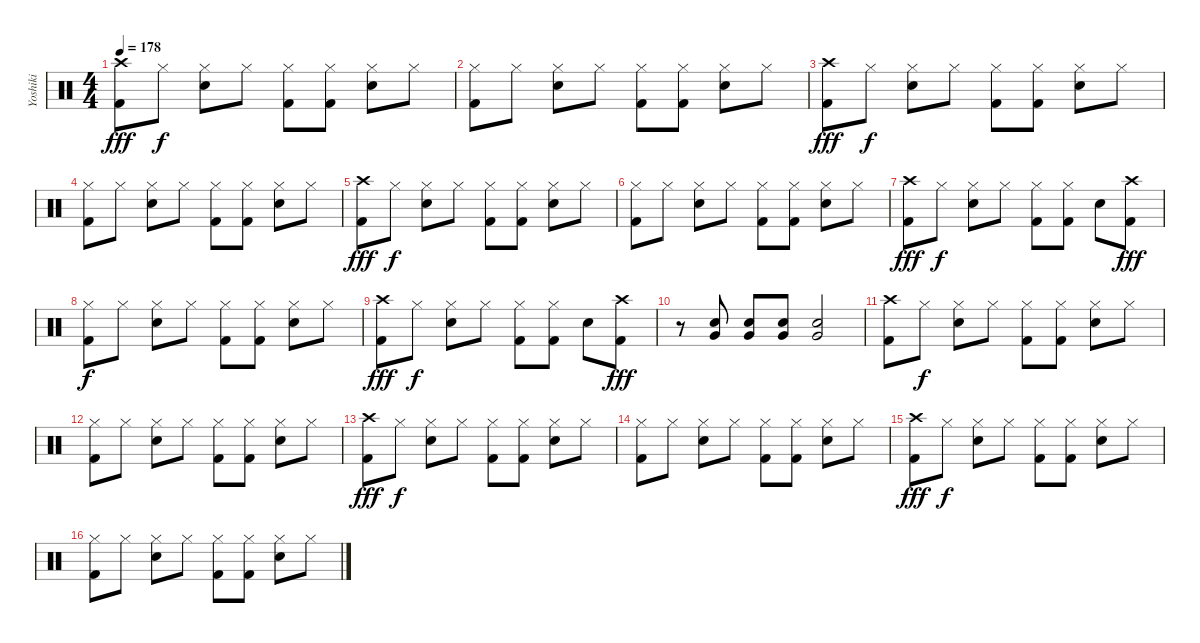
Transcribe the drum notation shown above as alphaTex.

\track ("Yoshiki" "Yoshiki") {instrument percussion}
\staff {score}
\articulation defaults
\ts (4 4)
\tempo 178
\clef neutral
\ks c
("Crash high (hit)" "Kick (hit) 2").8{dy fff} "Hi-Hat (closed)".8{dy f} ("Hi-Hat (closed)" "Snare (hit) 2").8 "Hi-Hat (closed)".8 ("Hi-Hat (closed)" "Kick (hit) 2").8 ("Hi-Hat (closed)" "Kick (hit) 2").8 ("Hi-Hat (closed)" "Snare (hit) 2").8 "Hi-Hat (closed)".8 |
("Hi-Hat (closed)" "Kick (hit) 2").8 "Hi-Hat (closed)".8 ("Hi-Hat (closed)" "Snare (hit) 2").8 "Hi-Hat (closed)".8 ("Hi-Hat (closed)" "Kick (hit) 2").8 ("Hi-Hat (closed)" "Kick (hit) 2").8 ("Hi-Hat (closed)" "Snare (hit) 2").8 "Hi-Hat (closed)".8 |
("Crash high (hit)" "Kick (hit) 2").8{dy fff} "Hi-Hat (closed)".8{dy f} ("Hi-Hat (closed)" "Snare (hit) 2").8 "Hi-Hat (closed)".8 ("Hi-Hat (closed)" "Kick (hit) 2").8 ("Hi-Hat (closed)" "Kick (hit) 2").8 ("Hi-Hat (closed)" "Snare (hit) 2").8 "Hi-Hat (closed)".8 |
("Hi-Hat (closed)" "Kick (hit) 2").8 "Hi-Hat (closed)".8 ("Hi-Hat (closed)" "Snare (hit) 2").8 "Hi-Hat (closed)".8 ("Hi-Hat (closed)" "Kick (hit) 2").8 ("Hi-Hat (closed)" "Kick (hit) 2").8 ("Hi-Hat (closed)" "Snare (hit) 2").8 "Hi-Hat (closed)".8 |
("Crash high (hit)" "Kick (hit) 2").8{dy fff} "Hi-Hat (closed)".8{dy f} ("Hi-Hat (closed)" "Snare (hit) 2").8 "Hi-Hat (closed)".8 ("Hi-Hat (closed)" "Kick (hit) 2").8 ("Hi-Hat (closed)" "Kick (hit) 2").8 ("Hi-Hat (closed)" "Snare (hit) 2").8 "Hi-Hat (closed)".8 |
("Hi-Hat (closed)" "Kick (hit) 2").8 "Hi-Hat (closed)".8 ("Hi-Hat (closed)" "Snare (hit) 2").8 "Hi-Hat (closed)".8 ("Hi-Hat (closed)" "Kick (hit) 2").8 ("Hi-Hat (closed)" "Kick (hit) 2").8 ("Hi-Hat (closed)" "Snare (hit) 2").8 "Hi-Hat (closed)".8 |
("Crash high (hit)" "Kick (hit) 2").8{dy fff} "Hi-Hat (closed)".8{dy f} ("Hi-Hat (closed)" "Snare (hit) 2").8 "Hi-Hat (closed)".8 ("Hi-Hat (closed)" "Kick (hit) 2").8 ("Hi-Hat (closed)" "Kick (hit) 2").8 "Snare (hit) 2".8 ("Crash high (hit)" "Kick (hit) 2").8{dy fff} |
("Hi-Hat (closed)" "Kick (hit) 2").8{dy f} "Hi-Hat (closed)".8 ("Hi-Hat (closed)" "Snare (hit) 2").8 "Hi-Hat (closed)".8 ("Hi-Hat (closed)" "Kick (hit) 2").8 ("Hi-Hat (closed)" "Kick (hit) 2").8 ("Hi-Hat (closed)" "Snare (hit) 2").8 "Hi-Hat (closed)".8 |
("Crash high (hit)" "Kick (hit) 2").8{dy fff} "Hi-Hat (closed)".8{dy f} ("Hi-Hat (closed)" "Snare (hit) 2").8 "Hi-Hat (closed)".8 ("Hi-Hat (closed)" "Kick (hit) 2").8 ("Hi-Hat (closed)" "Kick (hit) 2").8 "Snare (hit) 2".8 ("Crash high (hit)" "Kick (hit) 2").8{dy fff} |
r.8 ("Snare (hit) 2" "Very Low Tom (hit)").8 ("Snare (hit) 2" "Very Low Tom (hit)").8 ("Snare (hit) 2" "Very Low Tom (hit)").8 ("Snare (hit) 2" "Very Low Tom (hit)").2 |
("Crash high (hit)" "Kick (hit) 2").8 "Hi-Hat (closed)".8{dy f} ("Hi-Hat (closed)" "Snare (hit) 2").8 "Hi-Hat (closed)".8 ("Hi-Hat (closed)" "Kick (hit) 2").8 ("Hi-Hat (closed)" "Kick (hit) 2").8 ("Hi-Hat (closed)" "Snare (hit) 2").8 "Hi-Hat (closed)".8 |
("Hi-Hat (closed)" "Kick (hit) 2").8 "Hi-Hat (closed)".8 ("Hi-Hat (closed)" "Snare (hit) 2").8 "Hi-Hat (closed)".8 ("Hi-Hat (closed)" "Kick (hit) 2").8 ("Hi-Hat (closed)" "Kick (hit) 2").8 ("Hi-Hat (closed)" "Snare (hit) 2").8 "Hi-Hat (closed)".8 |
("Crash high (hit)" "Kick (hit) 2").8{dy fff} "Hi-Hat (closed)".8{dy f} ("Hi-Hat (closed)" "Snare (hit) 2").8 "Hi-Hat (closed)".8 ("Hi-Hat (closed)" "Kick (hit) 2").8 ("Hi-Hat (closed)" "Kick (hit) 2").8 ("Hi-Hat (closed)" "Snare (hit) 2").8 "Hi-Hat (closed)".8 |
("Hi-Hat (closed)" "Kick (hit) 2").8 "Hi-Hat (closed)".8 ("Hi-Hat (closed)" "Snare (hit) 2").8 "Hi-Hat (closed)".8 ("Hi-Hat (closed)" "Kick (hit) 2").8 ("Hi-Hat (closed)" "Kick (hit) 2").8 ("Hi-Hat (closed)" "Snare (hit) 2").8 "Hi-Hat (closed)".8 |
("Crash high (hit)" "Kick (hit) 2").8{dy fff} "Hi-Hat (closed)".8{dy f} ("Hi-Hat (closed)" "Snare (hit) 2").8 "Hi-Hat (closed)".8 ("Hi-Hat (closed)" "Kick (hit) 2").8 ("Hi-Hat (closed)" "Kick (hit) 2").8 ("Hi-Hat (closed)" "Snare (hit) 2").8 "Hi-Hat (closed)".8 |
("Hi-Hat (closed)" "Kick (hit) 2").8 "Hi-Hat (closed)".8 ("Hi-Hat (closed)" "Snare (hit) 2").8 "Hi-Hat (closed)".8 ("Hi-Hat (closed)" "Kick (hit) 2").8 ("Hi-Hat (closed)" "Kick (hit) 2").8 ("Hi-Hat (closed)" "Snare (hit) 2").8 "Hi-Hat (closed)".8
